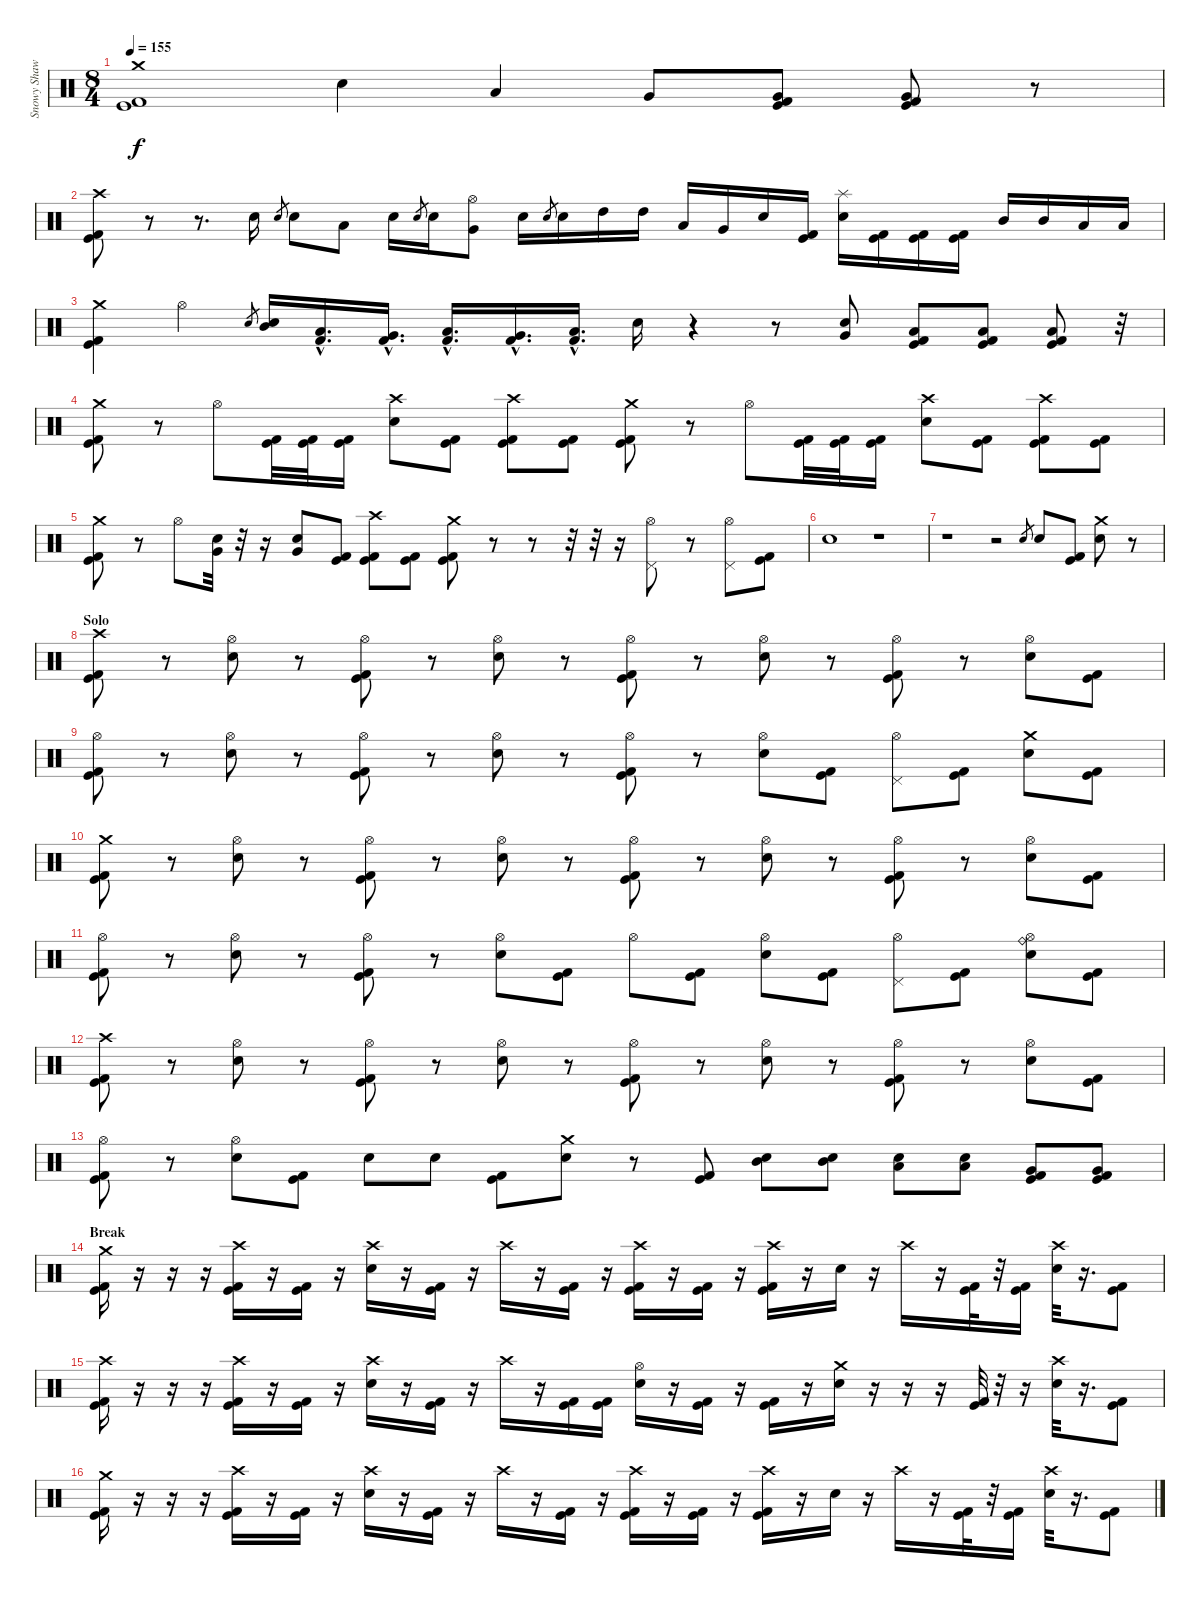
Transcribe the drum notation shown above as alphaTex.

\track ("Snowy Shaw" "Snowy Shaw") {instrument percussion}
\staff {score}
\articulation defaults
\ts (8 4)
\tempo 155
\clef neutral
\ks c
("Crash medium (hit)" "Kick (hit) 2" "Kick (hit)").1{dy f} "Electric Snare (hit)".4 "Low Tom (hit)".4 "Very Low Tom (hit)".8 ("Very Low Tom (hit)" "Kick (hit) 2" "Kick (hit)").8 ("Very Low Tom (hit)" "Kick (hit) 2" "Kick (hit)").8 r.8 |
("Crash high (hit)" "Kick (hit)" "Kick (hit) 2").8 r.8 r.8{d} "Electric Snare (hit)".16 "Electric Snare (hit)".8{gr} "Electric Snare (hit)".8 "Low Tom (hit)".8 "Electric Snare (hit)".16 "Electric Snare (hit)".8{gr} "Electric Snare (hit)".16 ("Hi-Hat (open)" "Very Low Tom (hit)").8 "Electric Snare (hit)".16 "Electric Snare (hit)".8{gr} "Electric Snare (hit)".16 "High Tom (hit)".16 "High Tom (hit)".16 "Low Tom (hit)".16 "Very Low Tom (hit)".16 "Electric Snare (hit)".16 ("Kick (hit)" "Kick (hit) 2").16 ("Splash (hit)" "Electric Snare (hit)").16 ("Kick (hit)" "Kick (hit) 2").16 ("Kick (hit) 2" "Kick (hit)").16 ("Kick (hit) 2" "Kick (hit)").16 "Mid Tom (hit)".16 "Mid Tom (hit)".16 "Low Tom (hit)".16 "Low Tom (hit)".16 |
("Crash medium (hit)" "Kick (hit) 2" "Kick (hit)").4 "Hi-Hat (open)".4 "Electric Snare (hit)".8{gr} ("Mid Tom (hit)" "Electric Snare (hit)").16 ("Low Tom (hit)"{hac} "Kick (hit) 2"{hac}).16{d} ("Very Low Tom (hit)"{hac} "Kick (hit) 2"{hac}).16{d} ("Low Tom (hit)"{hac} "Kick (hit) 2"{hac}).16{d} ("Very Low Tom (hit)"{hac} "Kick (hit) 2"{hac}).16{d} ("Low Floor Tom (hit)"{hac} "Kick (hit) 2"{hac}).16{d} "Electric Snare (hit)".16 r.4 r.8 ("Very Low Tom (hit)" "Electric Snare (hit)").8 ("Low Floor Tom (hit)" "Kick (hit)" "Kick (hit) 2").8 ("Low Floor Tom (hit)" "Kick (hit)" "Kick (hit) 2").8 ("Low Floor Tom (hit)" "Kick (hit)" "Kick (hit) 2").8 r.32 |
("Crash medium (hit)" "Kick (hit)" "Kick (hit) 2").8 r.8 "Hi-Hat (open)".8 ("Kick (hit)" "Kick (hit) 2").32 ("Kick (hit)" "Kick (hit) 2").32 ("Kick (hit)" "Kick (hit) 2").16 ("Crash high (hit)" "Electric Snare (hit)").8 ("Kick (hit)" "Kick (hit) 2").8 ("Crash high (hit)" "Kick (hit)" "Kick (hit) 2").8 ("Kick (hit)" "Kick (hit) 2").8 ("Crash medium (hit)" "Kick (hit) 2" "Kick (hit)").8 r.8 "Hi-Hat (open)".8 ("Kick (hit)" "Kick (hit) 2").32 ("Kick (hit)" "Kick (hit) 2").32 ("Kick (hit)" "Kick (hit) 2").16 ("Crash high (hit)" "Electric Snare (hit)").8 ("Kick (hit)" "Kick (hit) 2").8 ("Crash high (hit)" "Kick (hit)" "Kick (hit) 2").8 ("Kick (hit)" "Kick (hit) 2").8 |
("Crash medium (hit)" "Kick (hit)" "Kick (hit) 2").8 r.8 "Hi-Hat (open)".8 ("Very Low Tom (hit)" "Electric Snare (hit)").32 r.32 r.16 ("Very Low Tom (hit)" "Electric Snare (hit)").8 ("Kick (hit)" "Kick (hit) 2").8 ("Crash high (hit)" "Kick (hit)" "Kick (hit) 2").8 ("Kick (hit)" "Kick (hit) 2").8 ("Crash medium (hit)" "Kick (hit) 2" "Kick (hit)").8 r.8 r.8 r.32 r.32 r.16 ("Hi-Hat (open)" "Pedal Hi-Hat (hit)").8 r.8 ("Hi-Hat (open)" "Pedal Hi-Hat (hit)").8 ("Kick (hit) 2" "Kick (hit)").8 |
"Electric Snare (hit)".1 r.1 |
r.1 r.2 "Electric Snare (hit)".8{gr} "Electric Snare (hit)".8 ("Kick (hit) 2" "Kick (hit)").8 ("Crash medium (hit)" "Electric Snare (hit)").8 r.8 |
\section ("" "Solo")
("Crash high (hit)" "Kick (hit)" "Kick (hit) 2").8 r.8 ("Hi-Hat (open)" "Electric Snare (hit)").8 r.8 ("Hi-Hat (open)" "Kick (hit)" "Kick (hit) 2").8 r.8 ("Hi-Hat (open)" "Electric Snare (hit)").8 r.8 ("Hi-Hat (open)" "Kick (hit)" "Kick (hit) 2").8 r.8 ("Hi-Hat (open)" "Electric Snare (hit)").8 r.8 ("Hi-Hat (open)" "Kick (hit)" "Kick (hit) 2").8 r.8 ("Hi-Hat (open)" "Electric Snare (hit)").8 ("Kick (hit)" "Kick (hit) 2").8 |
("Hi-Hat (open)" "Kick (hit)" "Kick (hit) 2").8 r.8 ("Hi-Hat (open)" "Electric Snare (hit)").8 r.8 ("Hi-Hat (open)" "Kick (hit)" "Kick (hit) 2").8 r.8 ("Hi-Hat (open)" "Electric Snare (hit)").8 r.8 ("Hi-Hat (open)" "Kick (hit)" "Kick (hit) 2").8 r.8 ("Hi-Hat (open)" "Electric Snare (hit)").8 ("Kick (hit) 2" "Kick (hit)").8 ("Hi-Hat (open)" "Pedal Hi-Hat (hit)").8 ("Kick (hit) 2" "Kick (hit)").8 ("Crash medium (hit)" "Electric Snare (hit)").8 ("Kick (hit)" "Kick (hit) 2").8 |
("Crash medium (hit)" "Kick (hit)" "Kick (hit) 2").8 r.8 ("Hi-Hat (open)" "Electric Snare (hit)").8 r.8 ("Hi-Hat (open)" "Kick (hit)" "Kick (hit) 2").8 r.8 ("Hi-Hat (open)" "Electric Snare (hit)").8 r.8 ("Hi-Hat (open)" "Kick (hit)" "Kick (hit) 2").8 r.8 ("Hi-Hat (open)" "Electric Snare (hit)").8 r.8 ("Hi-Hat (open)" "Kick (hit)" "Kick (hit) 2").8 r.8 ("Hi-Hat (open)" "Electric Snare (hit)").8 ("Kick (hit)" "Kick (hit) 2").8 |
("Hi-Hat (open)" "Kick (hit)" "Kick (hit) 2").8 r.8 ("Hi-Hat (open)" "Electric Snare (hit)").8 r.8 ("Hi-Hat (open)" "Kick (hit)" "Kick (hit) 2").8 r.8 ("Hi-Hat (open)" "Electric Snare (hit)").8 ("Kick (hit) 2" "Kick (hit)").8 "Hi-Hat (open)".8 ("Kick (hit) 2" "Kick (hit)").8 ("Hi-Hat (open)" "Electric Snare (hit)").8 ("Kick (hit) 2" "Kick (hit)").8 ("Hi-Hat (open)" "Pedal Hi-Hat (hit)").8 ("Kick (hit) 2" "Kick (hit)").8 ("Ride (bell)" "Hi-Hat (open)" "Electric Snare (hit)").8 ("Kick (hit)" "Kick (hit) 2").8 |
("Crash high (hit)" "Kick (hit)" "Kick (hit) 2").8 r.8 ("Hi-Hat (open)" "Electric Snare (hit)").8 r.8 ("Hi-Hat (open)" "Kick (hit)" "Kick (hit) 2").8 r.8 ("Hi-Hat (open)" "Electric Snare (hit)").8 r.8 ("Hi-Hat (open)" "Kick (hit)" "Kick (hit) 2").8 r.8 ("Hi-Hat (open)" "Electric Snare (hit)").8 r.8 ("Hi-Hat (open)" "Kick (hit)" "Kick (hit) 2").8 r.8 ("Hi-Hat (open)" "Electric Snare (hit)").8 ("Kick (hit)" "Kick (hit) 2").8 |
("Hi-Hat (open)" "Kick (hit)" "Kick (hit) 2").8 r.8 ("Hi-Hat (open)" "Electric Snare (hit)").8 ("Kick (hit) 2" "Kick (hit)").8 "Electric Snare (hit)".8 "Electric Snare (hit)".8 ("Kick (hit) 2" "Kick (hit)").8 ("Crash medium (hit)" "Electric Snare (hit)").8 r.8 ("Kick (hit) 2" "Kick (hit)").8 ("Mid Tom (hit)" "Electric Snare (hit)").8 ("Mid Tom (hit)" "Electric Snare (hit)").8 ("Low Tom (hit)" "Electric Snare (hit)").8 ("Low Tom (hit)" "Electric Snare (hit)").8 ("Very Low Tom (hit)" "Kick (hit)" "Kick (hit) 2").8 ("Very Low Tom (hit)" "Kick (hit)" "Kick (hit) 2").8 |
\section ("" "Break")
("Crash medium (hit)" "Kick (hit)" "Kick (hit) 2").16 r.16 r.16 r.16 ("Crash high (hit)" "Kick (hit) 2" "Kick (hit)").16 r.16 ("Kick (hit) 2" "Kick (hit)").16 r.16 ("Crash high (hit)" "Electric Snare (hit)").16 r.16 ("Kick (hit) 2" "Kick (hit)").16 r.16 "Crash high (hit)".16 r.16 ("Kick (hit) 2" "Kick (hit)").16 r.16 ("Crash high (hit)" "Kick (hit) 2" "Kick (hit)").16 r.16 ("Kick (hit) 2" "Kick (hit)").16 r.16 ("Crash high (hit)" "Kick (hit)" "Kick (hit) 2").16 r.16 "Electric Snare (hit)".16 r.16 "Crash high (hit)".16 r.16 ("Kick (hit) 2" "Kick (hit)").32 r.32 ("Kick (hit) 2" "Kick (hit)").16 ("Crash high (hit)" "Electric Snare (hit)").32 r.16{d} ("Kick (hit) 2" "Kick (hit)").8 |
("Crash high (hit)" "Kick (hit)" "Kick (hit) 2").16 r.16 r.16 r.16 ("Crash high (hit)" "Kick (hit) 2" "Kick (hit)").16 r.16 ("Kick (hit) 2" "Kick (hit)").16 r.16 ("Crash high (hit)" "Electric Snare (hit)").16 r.16 ("Kick (hit) 2" "Kick (hit)").16 r.16 "Crash high (hit)".16 r.16 ("Kick (hit) 2" "Kick (hit)").16 ("Kick (hit) 2" "Kick (hit)").16 ("Hi-Hat (open)" "Electric Snare (hit)").16 r.16 ("Kick (hit) 2" "Kick (hit)").16 r.16 ("Kick (hit) 2" "Kick (hit)").16 r.16 ("Crash medium (hit)" "Electric Snare (hit)").16 r.16 r.16 r.16 ("Kick (hit) 2" "Kick (hit)").32 r.32 r.16 ("Crash high (hit)" "Electric Snare (hit)").32 r.16{d} ("Kick (hit) 2" "Kick (hit)").8 |
("Crash medium (hit)" "Kick (hit)" "Kick (hit) 2").16 r.16 r.16 r.16 ("Crash high (hit)" "Kick (hit) 2" "Kick (hit)").16 r.16 ("Kick (hit) 2" "Kick (hit)").16 r.16 ("Crash high (hit)" "Electric Snare (hit)").16 r.16 ("Kick (hit) 2" "Kick (hit)").16 r.16 "Crash high (hit)".16 r.16 ("Kick (hit) 2" "Kick (hit)").16 r.16 ("Crash high (hit)" "Kick (hit) 2" "Kick (hit)").16 r.16 ("Kick (hit) 2" "Kick (hit)").16 r.16 ("Crash high (hit)" "Kick (hit)" "Kick (hit) 2").16 r.16 "Electric Snare (hit)".16 r.16 "Crash high (hit)".16 r.16 ("Kick (hit) 2" "Kick (hit)").32 r.32 ("Kick (hit) 2" "Kick (hit)").16 ("Crash high (hit)" "Electric Snare (hit)").32 r.16{d} ("Kick (hit) 2" "Kick (hit)").8
